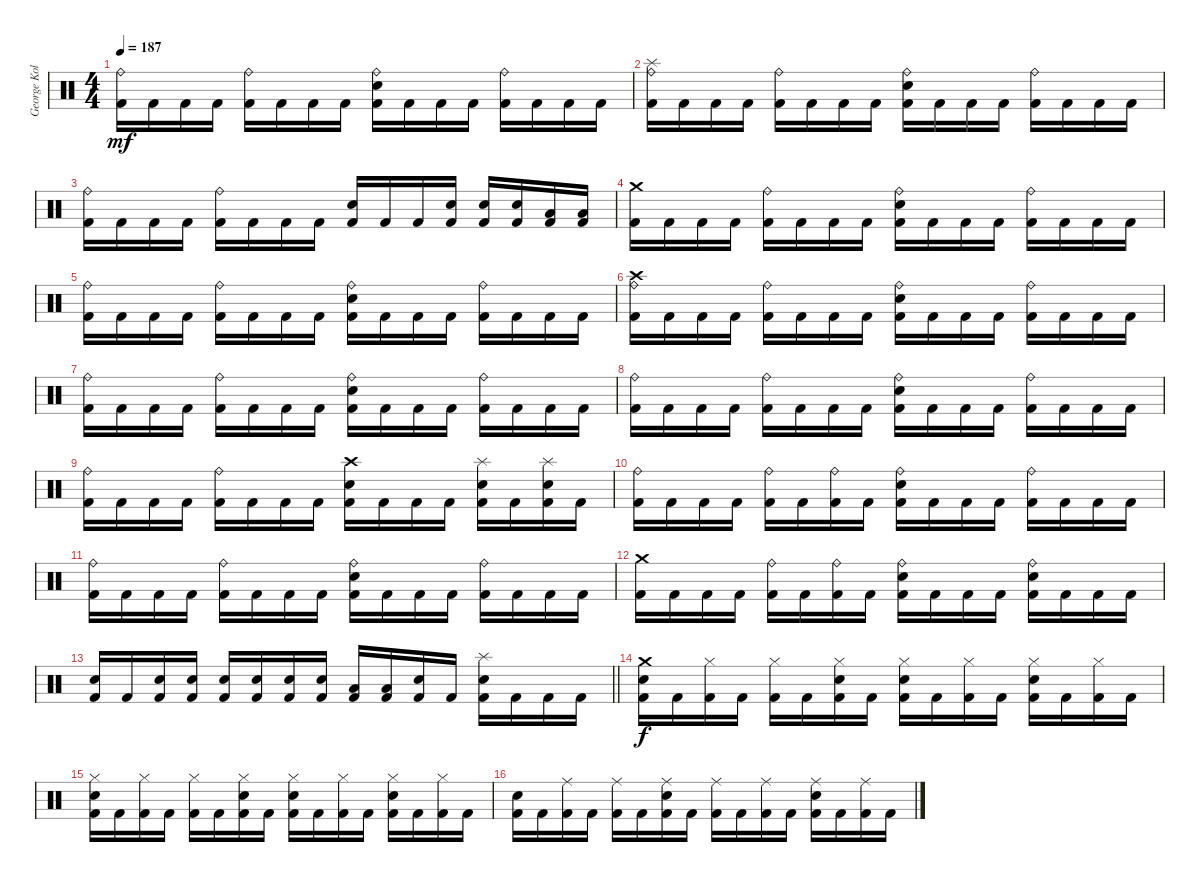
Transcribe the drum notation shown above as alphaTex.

\track ("George Kollias" "George Kol") {instrument percussion}
\staff {score}
\articulation defaults
\ts (4 4)
\tempo 187
\clef neutral
\ks c
("Ride (bell)" "Kick (hit) 2").16{dy mf} "Kick (hit) 2".16 "Kick (hit) 2".16 "Kick (hit) 2".16 ("Ride (bell)" "Kick (hit) 2").16 "Kick (hit) 2".16 "Kick (hit) 2".16 "Kick (hit) 2".16 ("Ride (bell)" "Electric Snare (hit)" "Kick (hit) 2").16 "Kick (hit) 2".16 "Kick (hit) 2".16 "Kick (hit) 2".16 ("Ride (bell)" "Kick (hit) 2").16 "Kick (hit) 2".16 "Kick (hit) 2".16 "Kick (hit) 2".16 |
("Splash (hit)" "Ride (bell)" "Kick (hit) 2").16 "Kick (hit) 2".16 "Kick (hit) 2".16 "Kick (hit) 2".16 ("Ride (bell)" "Kick (hit) 2").16 "Kick (hit) 2".16 "Kick (hit) 2".16 "Kick (hit) 2".16 ("Ride (bell)" "Electric Snare (hit)" "Kick (hit) 2").16 "Kick (hit) 2".16 "Kick (hit) 2".16 "Kick (hit) 2".16 ("Ride (bell)" "Kick (hit) 2").16 "Kick (hit) 2".16 "Kick (hit) 2".16 "Kick (hit) 2".16 |
("Ride (bell)" "Kick (hit) 2").16 "Kick (hit) 2".16 "Kick (hit) 2".16 "Kick (hit) 2".16 ("Ride (bell)" "Kick (hit) 2").16 "Kick (hit) 2".16 "Kick (hit) 2".16 "Kick (hit) 2".16 ("Electric Snare (hit)" "Kick (hit) 2").16 "Kick (hit) 2".16 "Kick (hit) 2".16 ("Electric Snare (hit)" "Kick (hit) 2").16 ("Electric Snare (hit)" "Kick (hit) 2").16 ("Electric Snare (hit)" "Kick (hit) 2").16 ("Low Tom (hit)" "Kick (hit) 2").16 ("Low Tom (hit)" "Kick (hit) 2").16 |
("Crash medium (hit)" "Kick (hit) 2").16 "Kick (hit) 2".16 "Kick (hit) 2".16 "Kick (hit) 2".16 ("Ride (bell)" "Kick (hit) 2").16 "Kick (hit) 2".16 "Kick (hit) 2".16 "Kick (hit) 2".16 ("Ride (bell)" "Electric Snare (hit)" "Kick (hit) 2").16 "Kick (hit) 2".16 "Kick (hit) 2".16 "Kick (hit) 2".16 ("Ride (bell)" "Kick (hit) 2").16 "Kick (hit) 2".16 "Kick (hit) 2".16 "Kick (hit) 2".16 |
("Ride (bell)" "Kick (hit) 2").16 "Kick (hit) 2".16 "Kick (hit) 2".16 "Kick (hit) 2".16 ("Ride (bell)" "Kick (hit) 2").16 "Kick (hit) 2".16 "Kick (hit) 2".16 "Kick (hit) 2".16 ("Ride (bell)" "Electric Snare (hit)" "Kick (hit) 2").16 "Kick (hit) 2".16 "Kick (hit) 2".16 "Kick (hit) 2".16 ("Ride (bell)" "Kick (hit) 2").16 "Kick (hit) 2".16 "Kick (hit) 2".16 "Kick (hit) 2".16 |
("Crash high (hit)" "Ride (bell)" "Kick (hit) 2").16 "Kick (hit) 2".16 "Kick (hit) 2".16 "Kick (hit) 2".16 ("Ride (bell)" "Kick (hit) 2").16 "Kick (hit) 2".16 "Kick (hit) 2".16 "Kick (hit) 2".16 ("Ride (bell)" "Electric Snare (hit)" "Kick (hit) 2").16 "Kick (hit) 2".16 "Kick (hit) 2".16 "Kick (hit) 2".16 ("Ride (bell)" "Kick (hit) 2").16 "Kick (hit) 2".16 "Kick (hit) 2".16 "Kick (hit) 2".16 |
("Ride (bell)" "Kick (hit) 2").16 "Kick (hit) 2".16 "Kick (hit) 2".16 "Kick (hit) 2".16 ("Ride (bell)" "Kick (hit) 2").16 "Kick (hit) 2".16 "Kick (hit) 2".16 "Kick (hit) 2".16 ("Ride (bell)" "Electric Snare (hit)" "Kick (hit) 2").16 "Kick (hit) 2".16 "Kick (hit) 2".16 "Kick (hit) 2".16 ("Ride (bell)" "Kick (hit) 2").16 "Kick (hit) 2".16 "Kick (hit) 2".16 "Kick (hit) 2".16 |
("Ride (bell)" "Kick (hit) 2").16 "Kick (hit) 2".16 "Kick (hit) 2".16 "Kick (hit) 2".16 ("Ride (bell)" "Kick (hit) 2").16 "Kick (hit) 2".16 "Kick (hit) 2".16 "Kick (hit) 2".16 ("Ride (bell)" "Electric Snare (hit)" "Kick (hit) 2").16 "Kick (hit) 2".16 "Kick (hit) 2".16 "Kick (hit) 2".16 ("Ride (bell)" "Kick (hit) 2").16 "Kick (hit) 2".16 "Kick (hit) 2".16 "Kick (hit) 2".16 |
("Ride (bell)" "Kick (hit) 2").16 "Kick (hit) 2".16 "Kick (hit) 2".16 "Kick (hit) 2".16 ("Ride (bell)" "Kick (hit) 2").16 "Kick (hit) 2".16 "Kick (hit) 2".16 "Kick (hit) 2".16 ("Crash high (hit)" "Electric Snare (hit)" "Kick (hit) 2").16 "Kick (hit) 2".16 "Kick (hit) 2".16 "Kick (hit) 2".16 ("Splash (hit)" "Electric Snare (hit)" "Kick (hit) 2").16 "Kick (hit) 2".16 ("Splash (hit)" "Electric Snare (hit)" "Kick (hit) 2").16 "Kick (hit) 2".16 |
("Ride (bell)" "Kick (hit) 2").16 "Kick (hit) 2".16 "Kick (hit) 2".16 "Kick (hit) 2".16 ("Ride (bell)" "Kick (hit) 2").16 "Kick (hit) 2".16 ("Ride (bell)" "Kick (hit) 2").16 "Kick (hit) 2".16 ("Ride (bell)" "Electric Snare (hit)" "Kick (hit) 2").16 "Kick (hit) 2".16 "Kick (hit) 2".16 "Kick (hit) 2".16 ("Ride (bell)" "Kick (hit) 2").16 "Kick (hit) 2".16 "Kick (hit) 2".16 "Kick (hit) 2".16 |
("Ride (bell)" "Kick (hit) 2").16 "Kick (hit) 2".16 "Kick (hit) 2".16 "Kick (hit) 2".16 ("Ride (bell)" "Kick (hit) 2").16 "Kick (hit) 2".16 "Kick (hit) 2".16 "Kick (hit) 2".16 ("Ride (bell)" "Electric Snare (hit)" "Kick (hit) 2").16 "Kick (hit) 2".16 "Kick (hit) 2".16 "Kick (hit) 2".16 ("Ride (bell)" "Kick (hit) 2").16 "Kick (hit) 2".16 "Kick (hit) 2".16 "Kick (hit) 2".16 |
("Crash medium (hit)" "Kick (hit) 2").16 "Kick (hit) 2".16 "Kick (hit) 2".16 "Kick (hit) 2".16 ("Ride (bell)" "Kick (hit) 2").16 "Kick (hit) 2".16 ("Ride (bell)" "Kick (hit) 2").16 "Kick (hit) 2".16 ("Ride (bell)" "Electric Snare (hit)" "Kick (hit) 2").16 "Kick (hit) 2".16 "Kick (hit) 2".16 "Kick (hit) 2".16 ("Ride (bell)" "Electric Snare (hit)" "Kick (hit) 2").16 "Kick (hit) 2".16 "Kick (hit) 2".16 "Kick (hit) 2".16 |
\barLineRight lightlight
("Electric Snare (hit)" "Kick (hit) 2").16 "Kick (hit) 2".16 ("Electric Snare (hit)" "Kick (hit) 2").16 ("Electric Snare (hit)" "Kick (hit) 2").16 ("Electric Snare (hit)" "Kick (hit) 2").16 ("Electric Snare (hit)" "Kick (hit) 2").16 ("Electric Snare (hit)" "Kick (hit) 2").16 ("Electric Snare (hit)" "Kick (hit) 2").16 ("Low Tom (hit)" "Kick (hit) 2").16 ("Low Tom (hit)" "Kick (hit) 2").16 ("Electric Snare (hit)" "Kick (hit) 2").16 "Kick (hit) 2".16 ("Splash (hit)" "Electric Snare (hit)" "Kick (hit) 2").16 "Kick (hit) 2".16 "Kick (hit) 2".16 "Kick (hit) 2".16 |
\section ("" "")
("Crash medium (hit)" "Electric Snare (hit)" "Kick (hit) 2").16{dy f} "Kick (hit) 2".16 ("Hi-Hat (closed)" "Kick (hit) 2").16 "Kick (hit) 2".16 ("Hi-Hat (closed)" "Kick (hit) 2").16 "Kick (hit) 2".16 ("Hi-Hat (closed)" "Electric Snare (hit)" "Kick (hit) 2").16 "Kick (hit) 2".16 ("Hi-Hat (closed)" "Electric Snare (hit)" "Kick (hit) 2").16 "Kick (hit) 2".16 ("Hi-Hat (closed)" "Kick (hit) 2").16 "Kick (hit) 2".16 ("Hi-Hat (closed)" "Electric Snare (hit)" "Kick (hit) 2").16 "Kick (hit) 2".16 ("Hi-Hat (closed)" "Kick (hit) 2").16 "Kick (hit) 2".16 |
("Hi-Hat (closed)" "Electric Snare (hit)" "Kick (hit) 2").16 "Kick (hit) 2".16 ("Hi-Hat (closed)" "Kick (hit) 2").16 "Kick (hit) 2".16 ("Hi-Hat (closed)" "Kick (hit) 2").16 "Kick (hit) 2".16 ("Hi-Hat (closed)" "Electric Snare (hit)" "Kick (hit) 2").16 "Kick (hit) 2".16 ("Hi-Hat (closed)" "Electric Snare (hit)" "Kick (hit) 2").16 "Kick (hit) 2".16 ("Hi-Hat (closed)" "Kick (hit) 2").16 "Kick (hit) 2".16 ("Hi-Hat (closed)" "Electric Snare (hit)" "Kick (hit) 2").16 "Kick (hit) 2".16 ("Hi-Hat (closed)" "Kick (hit) 2").16 "Kick (hit) 2".16 |
("Electric Snare (hit)" "Kick (hit) 2").16 "Kick (hit) 2".16 ("Ride (middle)" "Kick (hit) 2").16 "Kick (hit) 2".16 ("Ride (middle)" "Kick (hit) 2").16 "Kick (hit) 2".16 ("Ride (middle)" "Electric Snare (hit)" "Kick (hit) 2").16 "Kick (hit) 2".16 ("Ride (middle)" "Kick (hit) 2").16 "Kick (hit) 2".16 ("Ride (middle)" "Kick (hit) 2").16 "Kick (hit) 2".16 ("Ride (middle)" "Electric Snare (hit)" "Kick (hit) 2").16 "Kick (hit) 2".16 ("Ride (middle)" "Kick (hit) 2").16 "Kick (hit) 2".16
